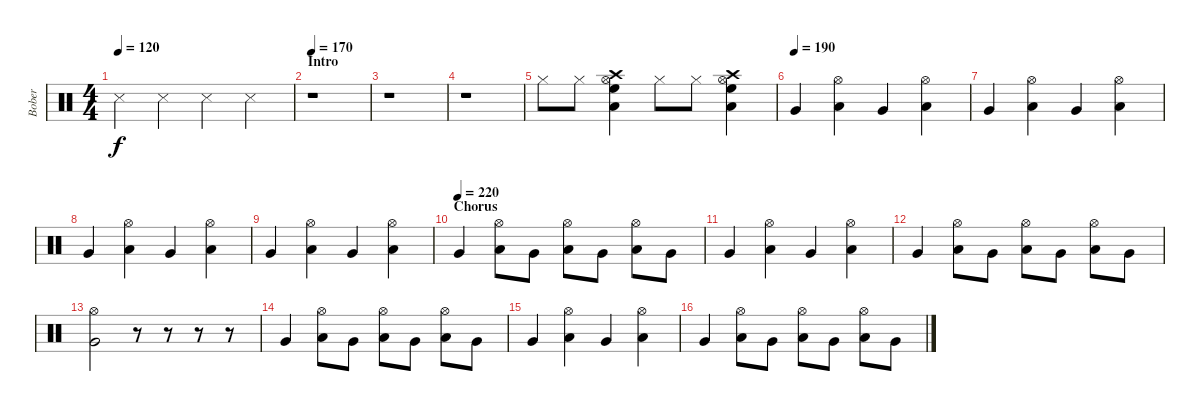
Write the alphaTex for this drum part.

\track ("Bober" "Bober") {instrument percussion}
\staff {score}
\articulation defaults
\ts (4 4)
\tempo 120
\clef neutral
\ks c "Snare (side stick) 3".4{dy f} "Snare (side stick) 3".4 "Snare (side stick) 3".4 "Snare (side stick) 3".4
|
\section ("" "Intro")
\tempo 170
r.1 |
r.1 |
r.1 |
"Hi-Hat (closed)".8 "Hi-Hat (closed)".8 ("High Floor Tom (hit)" "Low Floor Tom (hit)" "Hi-Hat (open)" "Crash high (hit)").4 "Hi-Hat (closed)".8 "Hi-Hat (closed)".8 ("High Floor Tom (hit)" "Low Floor Tom (hit)" "Hi-Hat (open)" "Crash high (hit)").4 |
\tempo (190)
"Very Low Tom (hit)".4 ("Low Floor Tom (hit)" "Hi-Hat (open)").4 "Very Low Tom (hit)".4 ("Low Floor Tom (hit)" "Hi-Hat (open)").4 |
"Very Low Tom (hit)".4 ("Low Floor Tom (hit)" "Hi-Hat (open)").4 "Very Low Tom (hit)".4 ("Low Floor Tom (hit)" "Hi-Hat (open)").4 |
"Very Low Tom (hit)".4 ("Low Floor Tom (hit)" "Hi-Hat (open)").4 "Very Low Tom (hit)".4 ("Low Floor Tom (hit)" "Hi-Hat (open)").4 |
"Very Low Tom (hit)".4 ("Low Floor Tom (hit)" "Hi-Hat (open)").4 "Very Low Tom (hit)".4 ("Low Floor Tom (hit)" "Hi-Hat (open)").4 |
\section ("" "Chorus")
\tempo (220)
"Very Low Tom (hit)".4 ("Low Floor Tom (hit)" "Hi-Hat (open)").8 "Very Low Tom (hit)".8 ("Low Floor Tom (hit)" "Hi-Hat (open)").8 "Very Low Tom (hit)".8 ("Low Floor Tom (hit)" "Hi-Hat (open)").8 "Very Low Tom (hit)".8 |
"Very Low Tom (hit)".4 ("Low Floor Tom (hit)" "Hi-Hat (open)").4 "Very Low Tom (hit)".4 ("Low Floor Tom (hit)" "Hi-Hat (open)").4 |
"Very Low Tom (hit)".4 ("Low Floor Tom (hit)" "Hi-Hat (open)").8 "Very Low Tom (hit)".8 ("Low Floor Tom (hit)" "Hi-Hat (open)").8 "Very Low Tom (hit)".8 ("Low Floor Tom (hit)" "Hi-Hat (open)").8 "Very Low Tom (hit)".8 |
("Very Low Tom (hit)" "Hi-Hat (open)").2 r.8 r.8 r.8 r.8 |
"Very Low Tom (hit)".4 ("Low Floor Tom (hit)" "Hi-Hat (open)").8 "Very Low Tom (hit)".8 ("Low Floor Tom (hit)" "Hi-Hat (open)").8 "Very Low Tom (hit)".8 ("Low Floor Tom (hit)" "Hi-Hat (open)").8 "Very Low Tom (hit)".8 |
"Very Low Tom (hit)".4 ("Low Floor Tom (hit)" "Hi-Hat (open)").4 "Very Low Tom (hit)".4 ("Low Floor Tom (hit)" "Hi-Hat (open)").4 |
"Very Low Tom (hit)".4 ("Low Floor Tom (hit)" "Hi-Hat (open)").8 "Very Low Tom (hit)".8 ("Low Floor Tom (hit)" "Hi-Hat (open)").8 "Very Low Tom (hit)".8 ("Low Floor Tom (hit)" "Hi-Hat (open)").8 "Very Low Tom (hit)".8
